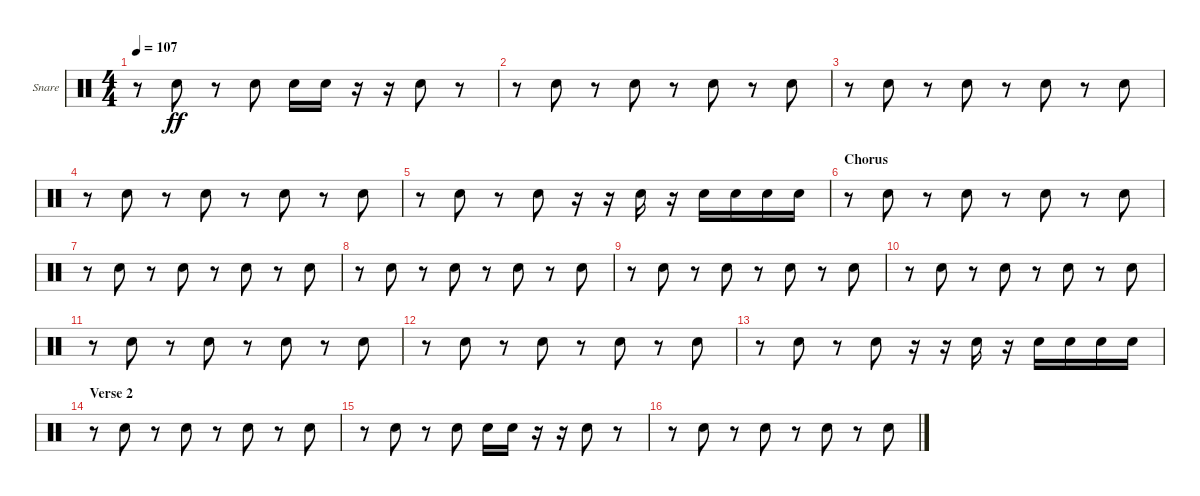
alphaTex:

\bracketExtendMode groupsimilarinstruments
\firstSystemTrackNameOrientation horizontal
\otherSystemsTrackNameOrientation horizontal
\track ("Snare" "Snare") {instrument percussion}
\staff {score}
\articulation defaults
\ts (4 4)
\tempo 107
\clef neutral
\ks c
r.8{dy ff} "Snare (hit) 2".8 r.8 "Snare (hit) 2".8 "Snare (hit) 2".16 "Snare (hit) 2".16 r.16 r.16 "Snare (hit) 2".8 r.8 |
r.8 "Snare (hit) 2".8 r.8 "Snare (hit) 2".8 r.8 "Snare (hit) 2".8 r.8 "Snare (hit) 2".8 |
r.8 "Snare (hit) 2".8 r.8 "Snare (hit) 2".8 r.8 "Snare (hit) 2".8 r.8 "Snare (hit) 2".8 |
r.8 "Snare (hit) 2".8 r.8 "Snare (hit) 2".8 r.8 "Snare (hit) 2".8 r.8 "Snare (hit) 2".8 |
r.8 "Snare (hit) 2".8 r.8 "Snare (hit) 2".8 r.16 r.16 "Snare (hit) 2".16 r.16 "Snare (hit) 2".16 "Snare (hit) 2".16 "Snare (hit) 2".16 "Snare (hit) 2".16 |
\section ("" "Chorus")
r.8 "Snare (hit) 2".8 r.8 "Snare (hit) 2".8 r.8 "Snare (hit) 2".8 r.8 "Snare (hit) 2".8 |
r.8 "Snare (hit) 2".8 r.8 "Snare (hit) 2".8 r.8 "Snare (hit) 2".8 r.8 "Snare (hit) 2".8 |
r.8 "Snare (hit) 2".8 r.8 "Snare (hit) 2".8 r.8 "Snare (hit) 2".8 r.8 "Snare (hit) 2".8 |
r.8 "Snare (hit) 2".8 r.8 "Snare (hit) 2".8 r.8 "Snare (hit) 2".8 r.8 "Snare (hit) 2".8 |
r.8 "Snare (hit) 2".8 r.8 "Snare (hit) 2".8 r.8 "Snare (hit) 2".8 r.8 "Snare (hit) 2".8 |
r.8 "Snare (hit) 2".8 r.8 "Snare (hit) 2".8 r.8 "Snare (hit) 2".8 r.8 "Snare (hit) 2".8 |
r.8 "Snare (hit) 2".8 r.8 "Snare (hit) 2".8 r.8 "Snare (hit) 2".8 r.8 "Snare (hit) 2".8 |
r.8 "Snare (hit) 2".8 r.8 "Snare (hit) 2".8 r.16 r.16 "Snare (hit) 2".16 r.16 "Snare (hit) 2".16 "Snare (hit) 2".16 "Snare (hit) 2".16 "Snare (hit) 2".16 |
\section ("" "Verse 2")
r.8 "Snare (hit) 2".8 r.8 "Snare (hit) 2".8 r.8 "Snare (hit) 2".8 r.8 "Snare (hit) 2".8 |
r.8 "Snare (hit) 2".8 r.8 "Snare (hit) 2".8 "Snare (hit) 2".16 "Snare (hit) 2".16 r.16 r.16 "Snare (hit) 2".8 r.8 |
r.8 "Snare (hit) 2".8 r.8 "Snare (hit) 2".8 r.8 "Snare (hit) 2".8 r.8 "Snare (hit) 2".8
